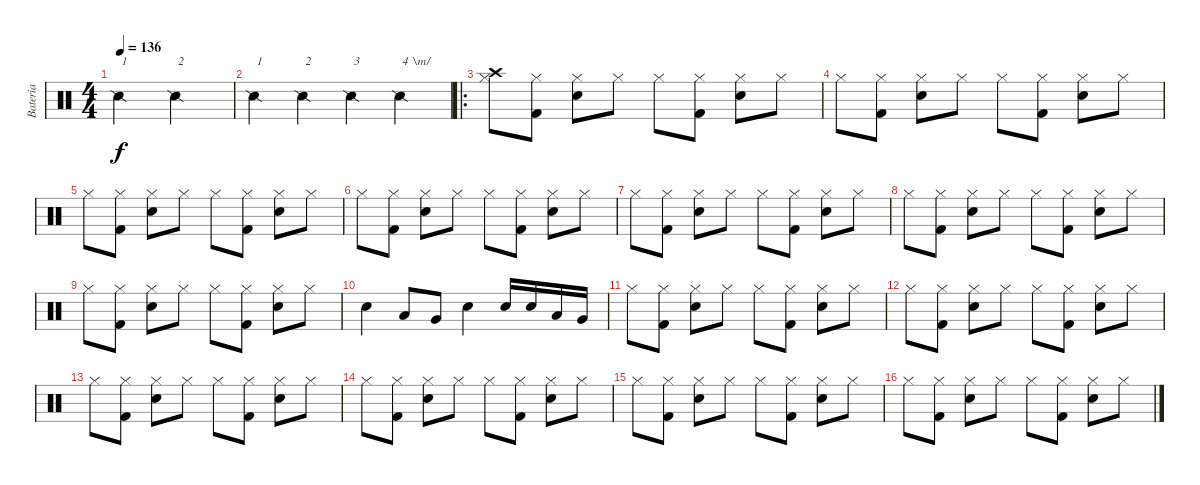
\track ("Bateria" "Bateria") {instrument percussion}
\staff {score}
\articulation defaults
\ts (4 4)
\tempo 136
\clef neutral
\ks c "Snare (side stick) 2".2{txt "1" dy f} "Snare (side stick) 2".2{txt "2"}
|
"Snare (side stick) 2".4{txt "1"} "Snare (side stick) 2".4{txt "2"} "Snare (side stick) 2".4{txt "3"} "Snare (side stick) 2".4{txt "4 \\m/"} |
\ro
("Crash high (hit)" "Hi-Hat (closed)").8 ("Kick (hit) 2" "Hi-Hat (closed)").8 ("Snare (hit) 2" "Hi-Hat (closed)").8 "Hi-Hat (closed)".8 "Hi-Hat (closed)".8 ("Kick (hit) 2" "Hi-Hat (closed)").8 ("Hi-Hat (closed)" "Snare (hit) 2").8 "Hi-Hat (closed)".8 |
"Hi-Hat (closed)".8 ("Kick (hit) 2" "Hi-Hat (closed)").8 ("Snare (hit) 2" "Hi-Hat (closed)").8 "Hi-Hat (closed)".8 "Hi-Hat (closed)".8 ("Kick (hit) 2" "Hi-Hat (closed)").8 ("Hi-Hat (closed)" "Snare (hit) 2").8 "Hi-Hat (closed)".8 |
"Hi-Hat (closed)".8 ("Kick (hit) 2" "Hi-Hat (closed)").8 ("Snare (hit) 2" "Hi-Hat (closed)").8 "Hi-Hat (closed)".8 "Hi-Hat (closed)".8 ("Kick (hit) 2" "Hi-Hat (closed)").8 ("Hi-Hat (closed)" "Snare (hit) 2").8 "Hi-Hat (closed)".8 |
"Hi-Hat (closed)".8 ("Kick (hit) 2" "Hi-Hat (closed)").8 ("Snare (hit) 2" "Hi-Hat (closed)").8 "Hi-Hat (closed)".8 "Hi-Hat (closed)".8 ("Kick (hit) 2" "Hi-Hat (closed)").8 ("Hi-Hat (closed)" "Snare (hit) 2").8 "Hi-Hat (closed)".8 |
"Hi-Hat (closed)".8 ("Kick (hit) 2" "Hi-Hat (closed)").8 ("Snare (hit) 2" "Hi-Hat (closed)").8 "Hi-Hat (closed)".8 "Hi-Hat (closed)".8 ("Kick (hit) 2" "Hi-Hat (closed)").8 ("Hi-Hat (closed)" "Snare (hit) 2").8 "Hi-Hat (closed)".8 |
"Hi-Hat (closed)".8 ("Kick (hit) 2" "Hi-Hat (closed)").8 ("Snare (hit) 2" "Hi-Hat (closed)").8 "Hi-Hat (closed)".8 "Hi-Hat (closed)".8 ("Kick (hit) 2" "Hi-Hat (closed)").8 ("Hi-Hat (closed)" "Snare (hit) 2").8 "Hi-Hat (closed)".8 |
"Hi-Hat (closed)".8 ("Kick (hit) 2" "Hi-Hat (closed)").8 ("Snare (hit) 2" "Hi-Hat (closed)").8 "Hi-Hat (closed)".8 "Hi-Hat (closed)".8 ("Kick (hit) 2" "Hi-Hat (closed)").8 ("Hi-Hat (closed)" "Snare (hit) 2").8 "Hi-Hat (closed)".8 |
"Snare (hit) 2".4 "Low Tom (hit)".8 "Very Low Tom (hit)".8 "Snare (hit) 2".4 "Snare (hit) 2".16 "Snare (hit) 2".16 "Low Tom (hit)".16 "Very Low Tom (hit)".16 |
"Hi-Hat (closed)".8 ("Kick (hit) 2" "Hi-Hat (closed)").8 ("Snare (hit) 2" "Hi-Hat (closed)").8 "Hi-Hat (closed)".8 "Hi-Hat (closed)".8 ("Kick (hit) 2" "Hi-Hat (closed)").8 ("Hi-Hat (closed)" "Snare (hit) 2").8 "Hi-Hat (closed)".8 |
"Hi-Hat (closed)".8 ("Kick (hit) 2" "Hi-Hat (closed)").8 ("Snare (hit) 2" "Hi-Hat (closed)").8 "Hi-Hat (closed)".8 "Hi-Hat (closed)".8 ("Kick (hit) 2" "Hi-Hat (closed)").8 ("Hi-Hat (closed)" "Snare (hit) 2").8 "Hi-Hat (closed)".8 |
"Hi-Hat (closed)".8 ("Kick (hit) 2" "Hi-Hat (closed)").8 ("Snare (hit) 2" "Hi-Hat (closed)").8 "Hi-Hat (closed)".8 "Hi-Hat (closed)".8 ("Kick (hit) 2" "Hi-Hat (closed)").8 ("Hi-Hat (closed)" "Snare (hit) 2").8 "Hi-Hat (closed)".8 |
"Hi-Hat (closed)".8 ("Kick (hit) 2" "Hi-Hat (closed)").8 ("Snare (hit) 2" "Hi-Hat (closed)").8 "Hi-Hat (closed)".8 "Hi-Hat (closed)".8 ("Kick (hit) 2" "Hi-Hat (closed)").8 ("Hi-Hat (closed)" "Snare (hit) 2").8 "Hi-Hat (closed)".8 |
"Hi-Hat (closed)".8 ("Kick (hit) 2" "Hi-Hat (closed)").8 ("Snare (hit) 2" "Hi-Hat (closed)").8 "Hi-Hat (closed)".8 "Hi-Hat (closed)".8 ("Kick (hit) 2" "Hi-Hat (closed)").8 ("Hi-Hat (closed)" "Snare (hit) 2").8 "Hi-Hat (closed)".8 |
"Hi-Hat (closed)".8 ("Kick (hit) 2" "Hi-Hat (closed)").8 ("Snare (hit) 2" "Hi-Hat (closed)").8 "Hi-Hat (closed)".8 "Hi-Hat (closed)".8 ("Kick (hit) 2" "Hi-Hat (closed)").8 ("Hi-Hat (closed)" "Snare (hit) 2").8 "Hi-Hat (closed)".8
